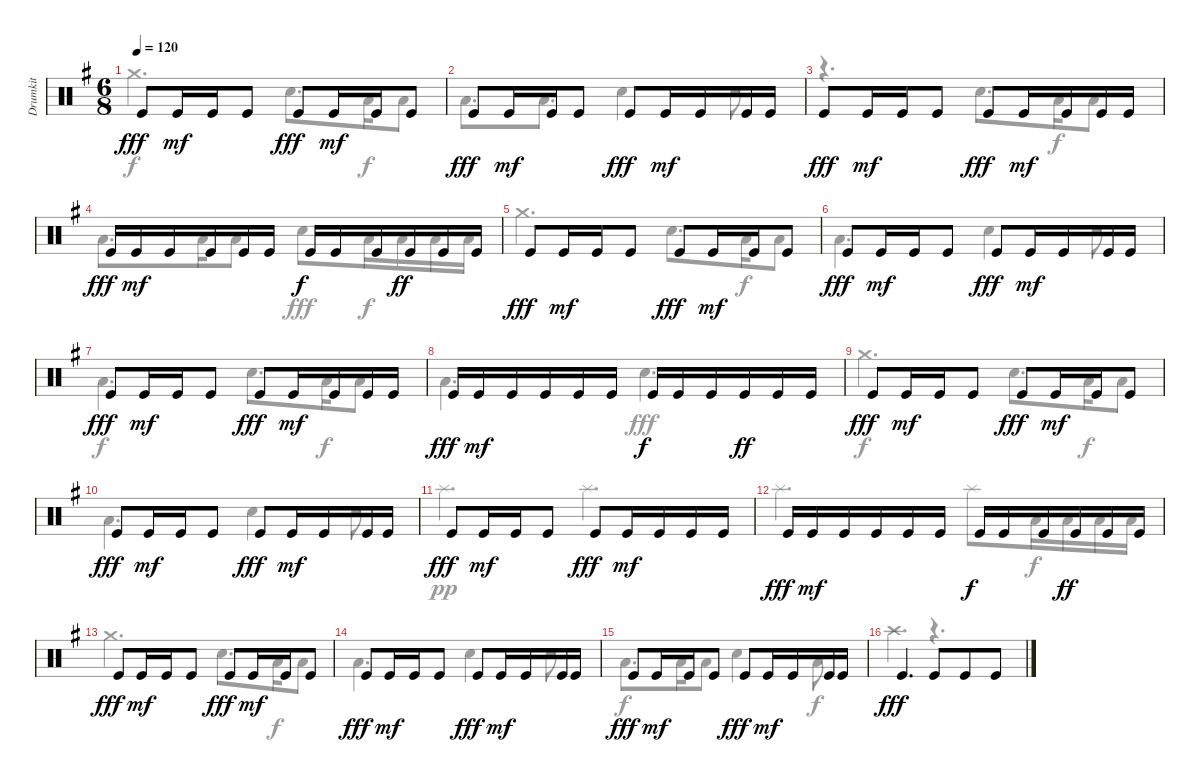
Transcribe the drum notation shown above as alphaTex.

\track ("Drumkit" "Drumkit") {instrument percussion}
\staff {score}
\articulation defaults
\voice
\ts (6 8)
\tempo 120
\clef neutral
\ks eminor "Kick (hit)".8{dy fff} "Kick (hit)".16{dy mf} "Kick (hit)".16 "Kick (hit)".8 "Kick (hit)".8{dy fff} "Kick (hit)".16{dy mf} "Kick (hit)".16 "Kick (hit)".8
|
"Kick (hit)".8{dy fff} "Kick (hit)".16{dy mf} "Kick (hit)".16 "Kick (hit)".8 "Kick (hit)".8{dy fff} "Kick (hit)".16{dy mf} "Kick (hit)".16 "Kick (hit)".16 "Kick (hit)".16 |
"Kick (hit)".8{dy fff} "Kick (hit)".16{dy mf} "Kick (hit)".16 "Kick (hit)".8 "Kick (hit)".8{dy fff} "Kick (hit)".16{dy mf} "Kick (hit)".16 "Kick (hit)".16 "Kick (hit)".16 |
"Kick (hit)".16{dy fff} "Kick (hit)".16{dy mf} "Kick (hit)".16 "Kick (hit)".16 "Kick (hit)".16 "Kick (hit)".16 "Kick (hit)".16{dy f} "Kick (hit)".16 "Kick (hit)".16 "Kick (hit)".16{dy ff} "Kick (hit)".16 "Kick (hit)".16 |
"Kick (hit)".8{dy fff} "Kick (hit)".16{dy mf} "Kick (hit)".16 "Kick (hit)".8 "Kick (hit)".8{dy fff} "Kick (hit)".16{dy mf} "Kick (hit)".16 "Kick (hit)".8 |
"Kick (hit)".8{dy fff} "Kick (hit)".16{dy mf} "Kick (hit)".16 "Kick (hit)".8 "Kick (hit)".8{dy fff} "Kick (hit)".16{dy mf} "Kick (hit)".16 "Kick (hit)".16 "Kick (hit)".16 |
"Kick (hit)".8{dy fff} "Kick (hit)".16{dy mf} "Kick (hit)".16 "Kick (hit)".8 "Kick (hit)".8{dy fff} "Kick (hit)".16{dy mf} "Kick (hit)".16 "Kick (hit)".16 "Kick (hit)".16 |
"Kick (hit)".16{dy fff} "Kick (hit)".16{dy mf} "Kick (hit)".16 "Kick (hit)".16 "Kick (hit)".16 "Kick (hit)".16 "Kick (hit)".16{dy f} "Kick (hit)".16 "Kick (hit)".16 "Kick (hit)".16{dy ff} "Kick (hit)".16 "Kick (hit)".16 |
"Kick (hit)".8{dy fff} "Kick (hit)".16{dy mf} "Kick (hit)".16 "Kick (hit)".8 "Kick (hit)".8{dy fff} "Kick (hit)".16{dy mf} "Kick (hit)".16 "Kick (hit)".8 |
"Kick (hit)".8{dy fff} "Kick (hit)".16{dy mf} "Kick (hit)".16 "Kick (hit)".8 "Kick (hit)".8{dy fff} "Kick (hit)".16{dy mf} "Kick (hit)".16 "Kick (hit)".16 "Kick (hit)".16 |
"Kick (hit)".8{dy fff} "Kick (hit)".16{dy mf} "Kick (hit)".16 "Kick (hit)".8 "Kick (hit)".8{dy fff} "Kick (hit)".16{dy mf} "Kick (hit)".16 "Kick (hit)".16 "Kick (hit)".16 |
"Kick (hit)".16{dy fff} "Kick (hit)".16{dy mf} "Kick (hit)".16 "Kick (hit)".16 "Kick (hit)".16 "Kick (hit)".16 "Kick (hit)".16{dy f} "Kick (hit)".16 "Kick (hit)".16 "Kick (hit)".16{dy ff} "Kick (hit)".16 "Kick (hit)".16 |
"Kick (hit)".8{dy fff} "Kick (hit)".16{dy mf} "Kick (hit)".16 "Kick (hit)".8 "Kick (hit)".8{dy fff} "Kick (hit)".16{dy mf} "Kick (hit)".16 "Kick (hit)".8 |
"Kick (hit)".8{dy fff} "Kick (hit)".16{dy mf} "Kick (hit)".16 "Kick (hit)".8 "Kick (hit)".8{dy fff} "Kick (hit)".16{dy mf} "Kick (hit)".16 "Kick (hit)".16 "Kick (hit)".16 |
"Kick (hit)".8{dy fff} "Kick (hit)".16{dy mf} "Kick (hit)".16 "Kick (hit)".8 "Kick (hit)".8{dy fff} "Kick (hit)".16{dy mf} "Kick (hit)".16 "Kick (hit)".16 "Kick (hit)".16 |
"Kick (hit)".4{d dy fff} "Kick (hit)".8 "Kick (hit)".8 "Kick (hit)".8
\voice
\clef neutral
\ottava regular
\simile none
\ks eminor "Crash medium (hit)".4{d dy f} "Snare (hit) 2".8{d dy fff} "Low Tom (hit)".16{dy f} "Low Floor Tom (hit)".8
|
"Low Tom (hit)".8{d} "Low Floor Tom (hit)".8{d} "Snare (hit) 2".4{dy fff} "Snare (hit) 2".8 |
r.4{d} "Snare (hit) 2".8{d} "Low Tom (hit)".16{dy f} "Low Floor Tom (hit)".8 |
"Low Tom (hit)".8{d} "Low Tom (hit)".16 "Low Floor Tom (hit)".8 "Snare (hit) 2".8{dy fff} "Low Tom (hit)".16{dy f} "Low Tom (hit)".16 "Low Tom (hit)".16 "Low Tom (hit)".16 |
"Crash medium (hit)".4{d} "Snare (hit) 2".8{d dy fff} "Low Tom (hit)".16{dy f} "Low Floor Tom (hit)".8 |
"Low Tom (hit)".4{d} "Snare (hit) 2".4{dy fff} "Snare (hit) 2".8 |
"Low Tom (hit)".4{d dy f} "Snare (hit) 2".8{d dy fff} "Low Tom (hit)".16{dy f} "Low Floor Tom (hit)".8 |
"Low Tom (hit)".4{d} "Snare (hit) 2".4{d dy fff} |
"Crash medium (hit)".4{d dy f} "Snare (hit) 2".8{d dy fff} "Low Tom (hit)".16{dy f} "Low Floor Tom (hit)".8 |
"Low Tom (hit)".4{d} "Snare (hit) 2".4{dy fff} "Snare (hit) 2".8 |
"Splash (hit)".4{d dy pp} "Splash (hit)".4{d} |
"Splash (hit)".4{d} "Splash (hit)".8 "Low Tom (hit)".16{dy f} "Low Tom (hit)".16 "Low Tom (hit)".16 "Low Tom (hit)".16 |
"Crash medium (hit)".4{d} "Snare (hit) 2".8{d dy fff} "Low Tom (hit)".16{dy f} "Low Floor Tom (hit)".8 |
"Low Tom (hit)".4{d} "Snare (hit) 2".4{dy fff} "Snare (hit) 2".8 |
"Low Tom (hit)".8{d dy f} "Low Tom (hit)".16 "Low Floor Tom (hit)".8 "Snare (hit) 2".4{dy fff} "Low Tom (hit)".8{dy f} |
"Crash high (hit)".4{d} r.4{d}
